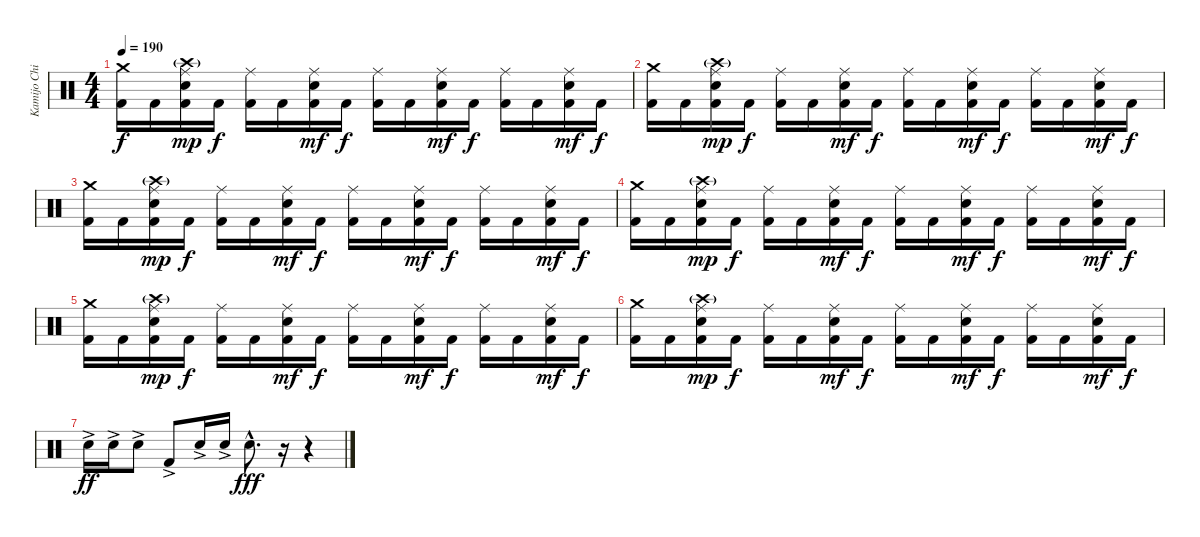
\track ("Kamijo Chihiro" "Kamijo Chi") {instrument percussion}
\staff {score}
\articulation defaults
\ts (4 4)
\tempo 190
\clef neutral
\ks c
("Crash medium (hit)" "Kick (hit) 2").16{dy f} "Kick (hit) 2".16 ("Ride (middle)" "Crash high (hit)"{g} "Snare (hit) 2" "Kick (hit) 2").16{dy mp} "Kick (hit) 2".16{dy f} ("Ride (middle)" "Kick (hit) 2").16 "Kick (hit) 2".16 ("Ride (middle)" "Snare (hit) 2" "Kick (hit) 2").16{dy mf} "Kick (hit) 2".16{dy f} ("Ride (middle)" "Kick (hit) 2").16 "Kick (hit) 2".16 ("Ride (middle)" "Snare (hit) 2" "Kick (hit) 2").16{dy mf} "Kick (hit) 2".16{dy f} ("Ride (middle)" "Kick (hit) 2").16 "Kick (hit) 2".16 ("Ride (middle)" "Snare (hit) 2" "Kick (hit) 2").16{dy mf} "Kick (hit) 2".16{dy f} |
("Crash medium (hit)" "Kick (hit) 2").16 "Kick (hit) 2".16 ("Ride (middle)" "Crash high (hit)"{g} "Snare (hit) 2" "Kick (hit) 2").16{dy mp} "Kick (hit) 2".16{dy f} ("Ride (middle)" "Kick (hit) 2").16 "Kick (hit) 2".16 ("Ride (middle)" "Snare (hit) 2" "Kick (hit) 2").16{dy mf} "Kick (hit) 2".16{dy f} ("Ride (middle)" "Kick (hit) 2").16 "Kick (hit) 2".16 ("Ride (middle)" "Snare (hit) 2" "Kick (hit) 2").16{dy mf} "Kick (hit) 2".16{dy f} ("Ride (middle)" "Kick (hit) 2").16 "Kick (hit) 2".16 ("Ride (middle)" "Snare (hit) 2" "Kick (hit) 2").16{dy mf} "Kick (hit) 2".16{dy f} |
("Crash medium (hit)" "Kick (hit) 2").16 "Kick (hit) 2".16 ("Ride (middle)" "Crash high (hit)"{g} "Snare (hit) 2" "Kick (hit) 2").16{dy mp} "Kick (hit) 2".16{dy f} ("Ride (middle)" "Kick (hit) 2").16 "Kick (hit) 2".16 ("Ride (middle)" "Snare (hit) 2" "Kick (hit) 2").16{dy mf} "Kick (hit) 2".16{dy f} ("Ride (middle)" "Kick (hit) 2").16 "Kick (hit) 2".16 ("Ride (middle)" "Snare (hit) 2" "Kick (hit) 2").16{dy mf} "Kick (hit) 2".16{dy f} ("Ride (middle)" "Kick (hit) 2").16 "Kick (hit) 2".16 ("Ride (middle)" "Snare (hit) 2" "Kick (hit) 2").16{dy mf} "Kick (hit) 2".16{dy f} |
("Crash medium (hit)" "Kick (hit) 2").16 "Kick (hit) 2".16 ("Ride (middle)" "Crash high (hit)"{g} "Snare (hit) 2" "Kick (hit) 2").16{dy mp} "Kick (hit) 2".16{dy f} ("Ride (middle)" "Kick (hit) 2").16 "Kick (hit) 2".16 ("Ride (middle)" "Snare (hit) 2" "Kick (hit) 2").16{dy mf} "Kick (hit) 2".16{dy f} ("Ride (middle)" "Kick (hit) 2").16 "Kick (hit) 2".16 ("Ride (middle)" "Snare (hit) 2" "Kick (hit) 2").16{dy mf} "Kick (hit) 2".16{dy f} ("Ride (middle)" "Kick (hit) 2").16 "Kick (hit) 2".16 ("Ride (middle)" "Snare (hit) 2" "Kick (hit) 2").16{dy mf} "Kick (hit) 2".16{dy f} |
("Crash medium (hit)" "Kick (hit) 2").16 "Kick (hit) 2".16 ("Ride (middle)" "Crash high (hit)"{g} "Snare (hit) 2" "Kick (hit) 2").16{dy mp} "Kick (hit) 2".16{dy f} ("Ride (middle)" "Kick (hit) 2").16 "Kick (hit) 2".16 ("Ride (middle)" "Snare (hit) 2" "Kick (hit) 2").16{dy mf} "Kick (hit) 2".16{dy f} ("Ride (middle)" "Kick (hit) 2").16 "Kick (hit) 2".16 ("Ride (middle)" "Snare (hit) 2" "Kick (hit) 2").16{dy mf} "Kick (hit) 2".16{dy f} ("Ride (middle)" "Kick (hit) 2").16 "Kick (hit) 2".16 ("Ride (middle)" "Snare (hit) 2" "Kick (hit) 2").16{dy mf} "Kick (hit) 2".16{dy f} |
("Crash medium (hit)" "Kick (hit) 2").16 "Kick (hit) 2".16 ("Ride (middle)" "Crash high (hit)"{g} "Snare (hit) 2" "Kick (hit) 2").16{dy mp} "Kick (hit) 2".16{dy f} ("Ride (middle)" "Kick (hit) 2").16 "Kick (hit) 2".16 ("Ride (middle)" "Snare (hit) 2" "Kick (hit) 2").16{dy mf} "Kick (hit) 2".16{dy f} ("Ride (middle)" "Kick (hit) 2").16 "Kick (hit) 2".16 ("Ride (middle)" "Snare (hit) 2" "Kick (hit) 2").16{dy mf} "Kick (hit) 2".16{dy f} ("Ride (middle)" "Kick (hit) 2").16 "Kick (hit) 2".16 ("Ride (middle)" "Snare (hit) 2" "Kick (hit) 2").16{dy mf} "Kick (hit) 2".16{dy f} |
"Snare (hit) 2"{ac}.16{dy ff} "Snare (hit) 2"{ac}.16 "Snare (hit) 2"{ac}.8 "Kick (hit) 2"{ac}.8 "Snare (hit) 2"{ac}.16 "Snare (hit) 2"{ac}.16 "Snare (hit) 2"{hac}.8{d dy fff} r.16 r.4
